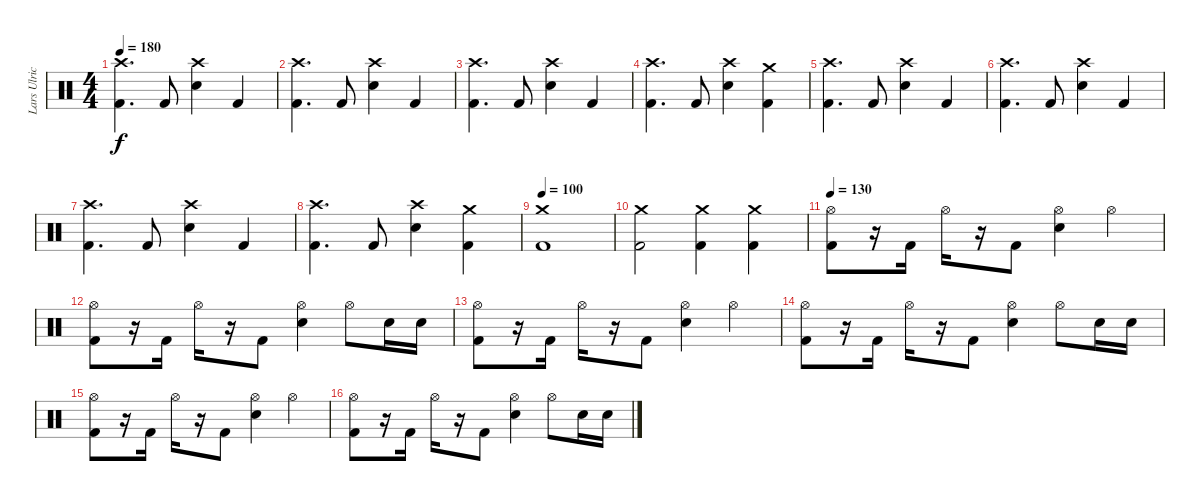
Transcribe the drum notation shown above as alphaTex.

\track ("Lars Ulrich" "Lars Ulric") {instrument percussion}
\staff {score}
\articulation defaults
\ts (4 4)
\tempo 180
\clef neutral
\ks c
("Crash high (hit)" "Kick (hit) 2").4{d dy f} "Kick (hit) 2".8 ("Crash high (hit)" "Electric Snare (hit)").4 "Kick (hit) 2".4 |
("Crash high (hit)" "Kick (hit) 2").4{d} "Kick (hit) 2".8 ("Crash high (hit)" "Electric Snare (hit)").4 "Kick (hit) 2".4 |
("Crash high (hit)" "Kick (hit) 2").4{d} "Kick (hit) 2".8 ("Crash high (hit)" "Electric Snare (hit)").4 "Kick (hit) 2".4 |
("Crash high (hit)" "Kick (hit) 2").4{d} "Kick (hit) 2".8 ("Crash high (hit)" "Electric Snare (hit)").4 ("Crash medium (hit)" "Kick (hit) 2").4 |
("Crash high (hit)" "Kick (hit) 2").4{d} "Kick (hit) 2".8 ("Crash high (hit)" "Electric Snare (hit)").4 "Kick (hit) 2".4 |
("Crash high (hit)" "Kick (hit) 2").4{d} "Kick (hit) 2".8 ("Crash high (hit)" "Electric Snare (hit)").4 "Kick (hit) 2".4 |
("Crash high (hit)" "Kick (hit) 2").4{d} "Kick (hit) 2".8 ("Crash high (hit)" "Electric Snare (hit)").4 "Kick (hit) 2".4 |
("Crash high (hit)" "Kick (hit) 2").4{d} "Kick (hit) 2".8 ("Crash high (hit)" "Electric Snare (hit)").4 ("Crash medium (hit)" "Kick (hit) 2").4 |
\tempo 100
("Crash medium (hit)" "Kick (hit) 2").1 |
("Crash medium (hit)" "Kick (hit) 2").2 ("Crash medium (hit)" "Kick (hit) 2").4 ("Crash medium (hit)" "Kick (hit) 2").4 |
\tempo 130
("Hi-Hat (open)" "Kick (hit) 2").8 r.16 "Kick (hit) 2".16 "Hi-Hat (open)".16 r.16 "Kick (hit) 2".8 ("Hi-Hat (open)" "Electric Snare (hit)").4 "Hi-Hat (open)".4 |
("Hi-Hat (open)" "Kick (hit) 2").8 r.16 "Kick (hit) 2".16 "Hi-Hat (open)".16 r.16 "Kick (hit) 2".8 ("Hi-Hat (open)" "Electric Snare (hit)").4 "Hi-Hat (open)".8 "Electric Snare (hit)".16 "Electric Snare (hit)".16 |
("Hi-Hat (open)" "Kick (hit) 2").8 r.16 "Kick (hit) 2".16 "Hi-Hat (open)".16 r.16 "Kick (hit) 2".8 ("Hi-Hat (open)" "Electric Snare (hit)").4 "Hi-Hat (open)".4 |
("Hi-Hat (open)" "Kick (hit) 2").8 r.16 "Kick (hit) 2".16 "Hi-Hat (open)".16 r.16 "Kick (hit) 2".8 ("Hi-Hat (open)" "Electric Snare (hit)").4 "Hi-Hat (open)".8 "Electric Snare (hit)".16 "Electric Snare (hit)".16 |
("Hi-Hat (open)" "Kick (hit) 2").8 r.16 "Kick (hit) 2".16 "Hi-Hat (open)".16 r.16 "Kick (hit) 2".8 ("Hi-Hat (open)" "Electric Snare (hit)").4 "Hi-Hat (open)".4 |
("Hi-Hat (open)" "Kick (hit) 2").8 r.16 "Kick (hit) 2".16 "Hi-Hat (open)".16 r.16 "Kick (hit) 2".8 ("Hi-Hat (open)" "Electric Snare (hit)").4 "Hi-Hat (open)".8 "Electric Snare (hit)".16 "Electric Snare (hit)".16
